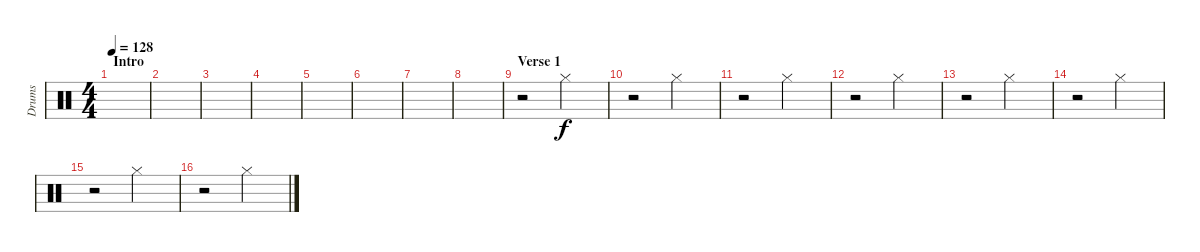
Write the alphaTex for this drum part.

\track ("Drums" "Drums") {instrument percussion}
\staff {score}
\articulation defaults
\ts (4 4)
\section ("" "Intro")
\tempo 128
\clef neutral
\ks c
|
|
|
|
|
|
|
|
\section ("" "Verse 1")
r.2 "Hi-Hat (closed)".2 |
r.2 "Hi-Hat (closed)".2 |
r.2 "Hi-Hat (closed)".2 |
r.2 "Hi-Hat (closed)".2 |
r.2 "Hi-Hat (closed)".2 |
r.2 "Hi-Hat (closed)".2 |
r.2 "Hi-Hat (closed)".2 |
r.2 "Hi-Hat (closed)".2
